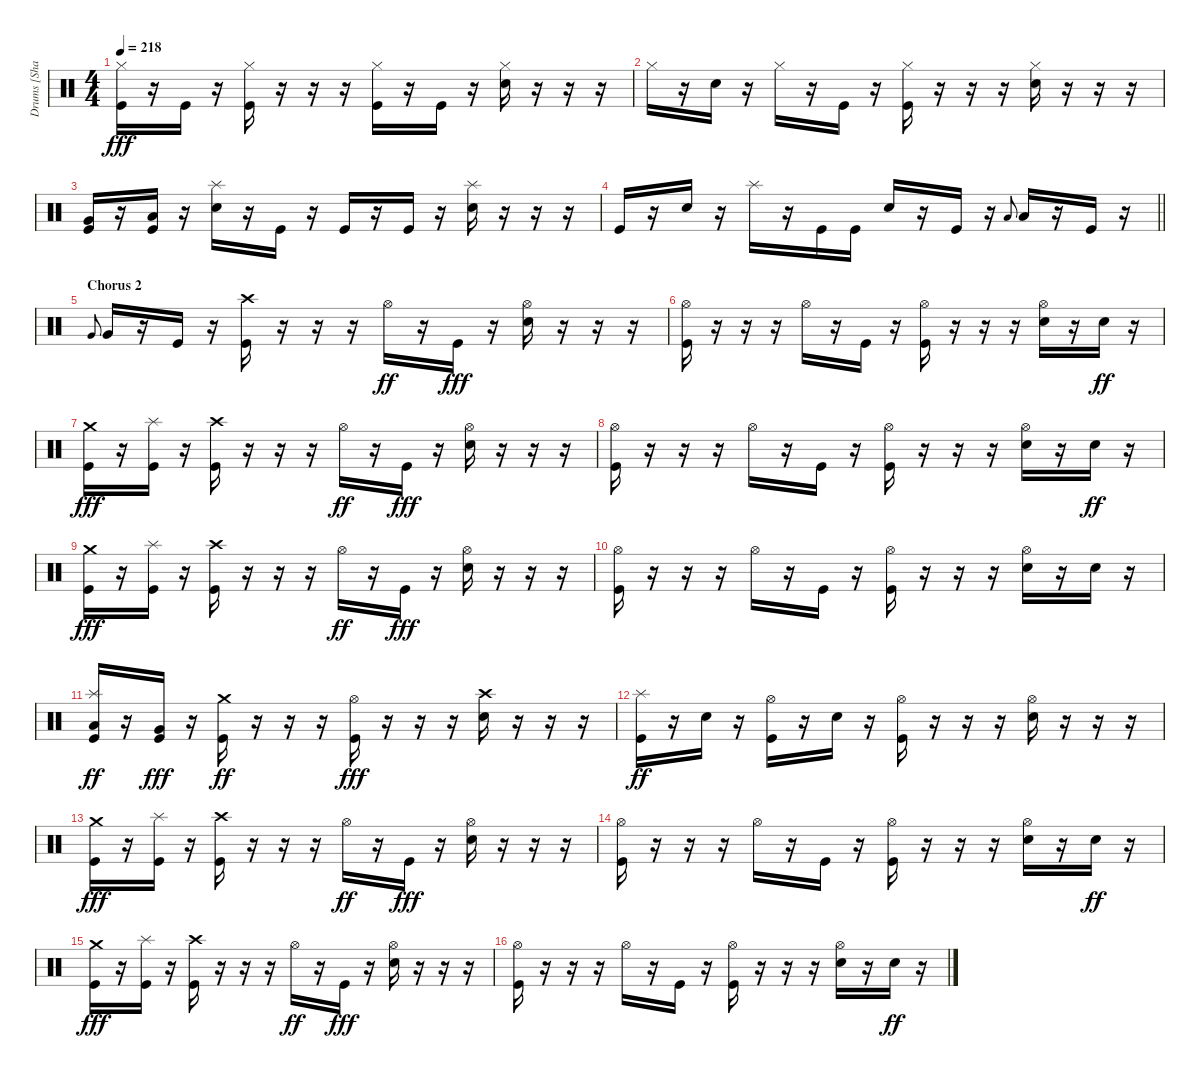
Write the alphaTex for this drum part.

\track ("Drums [Shannon Larkin]" "Drums [Sha") {instrument percussion}
\staff {score}
\articulation defaults
\ts (4 4)
\tempo 218
\clef neutral
\ks c
("Hi-Hat (closed)" "Kick (hit)").16{dy fff} r.16 "Kick (hit)".16 r.16 ("Hi-Hat (closed)" "Kick (hit)").16 r.16 r.16 r.16 ("Hi-Hat (closed)" "Kick (hit)").16 r.16 "Kick (hit)".16 r.16 ("Hi-Hat (closed)" "Electric Snare (hit)").16 r.16 r.16 r.16 |
"Hi-Hat (closed)".16 r.16 "Electric Snare (hit)".16 r.16 "Hi-Hat (closed)".16 r.16 "Kick (hit)".16 r.16 ("Hi-Hat (closed)" "Kick (hit)").16 r.16 r.16 r.16 ("Hi-Hat (closed)" "Electric Snare (hit)").16 r.16 r.16 r.16 |
("Very Low Tom (hit)" "Kick (hit)").16 r.16 ("Low Floor Tom (hit)" "Kick (hit)").16 r.16 ("Splash (hit)" "Electric Snare (hit)").16 r.16 "Kick (hit)".16 r.16 "Kick (hit)".16 r.16 "Kick (hit)".16 r.16 ("Splash (hit)" "Electric Snare (hit)").16 r.16 r.16 r.16 |
\barLineRight lightlight "Kick (hit)".16
r.16 "Electric Snare (hit)".16 r.16 "Splash (hit)".16 r.16 "Kick (hit)".16 "Kick (hit)".16 "Electric Snare (hit)".16 r.16 "Kick (hit)".16 r.16 "Low Tom (hit)".8{gr onbeat} "Low Tom (hit)".16 r.16 "Kick (hit)".16 r.16 |
\section ("" "Chorus 2")
"Very Low Tom (hit)".8{gr onbeat} "Very Low Tom (hit)".16 r.16 "Kick (hit)".16 r.16 ("Crash high (hit)" "Kick (hit)").16 r.16 r.16 r.16 "Hi-Hat (open)".16{dy ff} r.16 "Kick (hit)".16{dy fff} r.16 ("Hi-Hat (open)" "Electric Snare (hit)").16 r.16 r.16 r.16 |
("Hi-Hat (open)" "Kick (hit)").16 r.16 r.16 r.16 "Hi-Hat (open)".16 r.16 "Kick (hit)".16 r.16 ("Hi-Hat (open)" "Kick (hit)").16 r.16 r.16 r.16 ("Hi-Hat (open)" "Electric Snare (hit)").16 r.16 "Electric Snare (hit)".16{dy ff} r.16 |
("Crash medium (hit)" "Kick (hit)").16{dy fff} r.16 ("Splash (hit)" "Kick (hit)").16 r.16 ("Crash high (hit)" "Kick (hit)").16 r.16 r.16 r.16 "Hi-Hat (open)".16{dy ff} r.16 "Kick (hit)".16{dy fff} r.16 ("Hi-Hat (open)" "Electric Snare (hit)").16 r.16 r.16 r.16 |
("Hi-Hat (open)" "Kick (hit)").16 r.16 r.16 r.16 "Hi-Hat (open)".16 r.16 "Kick (hit)".16 r.16 ("Hi-Hat (open)" "Kick (hit)").16 r.16 r.16 r.16 ("Hi-Hat (open)" "Electric Snare (hit)").16 r.16 "Electric Snare (hit)".16{dy ff} r.16 |
("Crash medium (hit)" "Kick (hit)").16{dy fff} r.16 ("Splash (hit)" "Kick (hit)").16 r.16 ("Crash high (hit)" "Kick (hit)").16 r.16 r.16 r.16 "Hi-Hat (open)".16{dy ff} r.16 "Kick (hit)".16{dy fff} r.16 ("Hi-Hat (open)" "Electric Snare (hit)").16 r.16 r.16 r.16 |
("Hi-Hat (open)" "Kick (hit)").16 r.16 r.16 r.16 "Hi-Hat (open)".16 r.16 "Kick (hit)".16 r.16 ("Hi-Hat (open)" "Kick (hit)").16 r.16 r.16 r.16 ("Hi-Hat (open)" "Electric Snare (hit)").16 r.16 "Electric Snare (hit)".16 r.16 |
("Splash (hit)" "Low Tom (hit)" "Kick (hit)").16{dy ff} r.16 ("Very Low Tom (hit)" "Kick (hit)").16{dy fff} r.16 ("Crash medium (hit)" "Kick (hit)").16{dy ff} r.16 r.16 r.16 ("Hi-Hat (open)" "Kick (hit)").16{dy fff} r.16 r.16 r.16 ("Crash high (hit)" "Electric Snare (hit)").16 r.16 r.16 r.16 |
("Splash (hit)" "Kick (hit)").16{dy ff} r.16 "Electric Snare (hit)".16 r.16 ("Hi-Hat (open)" "Kick (hit)").16 r.16 "Electric Snare (hit)".16 r.16 ("Hi-Hat (open)" "Kick (hit)").16 r.16 r.16 r.16 ("Hi-Hat (open)" "Electric Snare (hit)").16 r.16 r.16 r.16 |
("Crash medium (hit)" "Kick (hit)").16{dy fff} r.16 ("Splash (hit)" "Kick (hit)").16 r.16 ("Crash high (hit)" "Kick (hit)").16 r.16 r.16 r.16 "Hi-Hat (open)".16{dy ff} r.16 "Kick (hit)".16{dy fff} r.16 ("Hi-Hat (open)" "Electric Snare (hit)").16 r.16 r.16 r.16 |
("Hi-Hat (open)" "Kick (hit)").16 r.16 r.16 r.16 "Hi-Hat (open)".16 r.16 "Kick (hit)".16 r.16 ("Hi-Hat (open)" "Kick (hit)").16 r.16 r.16 r.16 ("Hi-Hat (open)" "Electric Snare (hit)").16 r.16 "Electric Snare (hit)".16{dy ff} r.16 |
("Crash medium (hit)" "Kick (hit)").16{dy fff} r.16 ("Splash (hit)" "Kick (hit)").16 r.16 ("Crash high (hit)" "Kick (hit)").16 r.16 r.16 r.16 "Hi-Hat (open)".16{dy ff} r.16 "Kick (hit)".16{dy fff} r.16 ("Hi-Hat (open)" "Electric Snare (hit)").16 r.16 r.16 r.16 |
("Hi-Hat (open)" "Kick (hit)").16 r.16 r.16 r.16 "Hi-Hat (open)".16 r.16 "Kick (hit)".16 r.16 ("Hi-Hat (open)" "Kick (hit)").16 r.16 r.16 r.16 ("Hi-Hat (open)" "Electric Snare (hit)").16 r.16 "Electric Snare (hit)".16{dy ff} r.16
